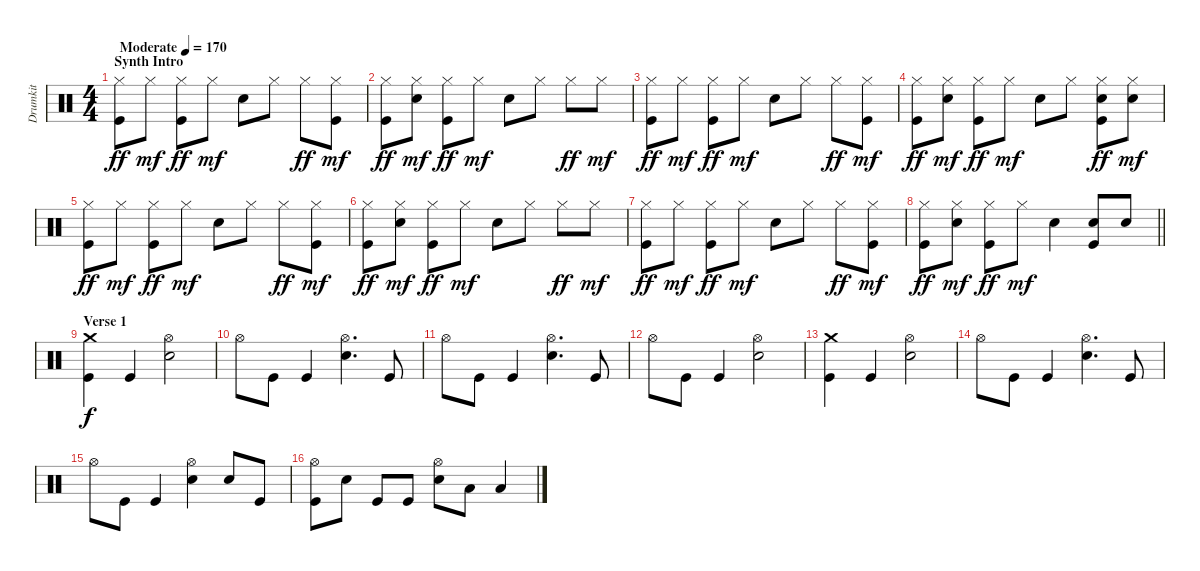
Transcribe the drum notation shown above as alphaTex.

\track ("Drumkit" "Drumkit") {instrument percussion}
\staff {score}
\articulation defaults
\ts (4 4)
\section ("" "Synth Intro")
\tempo (170 "Moderate")
\clef neutral
\ks c
("Hi-Hat (closed)" "Kick (hit)").8{dy ff} "Hi-Hat (closed)".8{dy mf} ("Hi-Hat (closed)" "Kick (hit)").8{dy ff} "Hi-Hat (closed)".8{dy mf} "Snare (hit) 2".8 "Hi-Hat (closed)".8 "Hi-Hat (closed)".8{dy ff} ("Hi-Hat (closed)" "Kick (hit)").8{dy mf} |
("Hi-Hat (closed)" "Kick (hit)").8{dy ff} ("Hi-Hat (closed)" "Snare (hit) 2").8{dy mf} ("Hi-Hat (closed)" "Kick (hit)").8{dy ff} "Hi-Hat (closed)".8{dy mf} "Snare (hit) 2".8 "Hi-Hat (closed)".8 "Hi-Hat (closed)".8{dy ff} "Hi-Hat (closed)".8{dy mf} |
("Hi-Hat (closed)" "Kick (hit)").8{dy ff} "Hi-Hat (closed)".8{dy mf} ("Hi-Hat (closed)" "Kick (hit)").8{dy ff} "Hi-Hat (closed)".8{dy mf} "Snare (hit) 2".8 "Hi-Hat (closed)".8 "Hi-Hat (closed)".8{dy ff} ("Hi-Hat (closed)" "Kick (hit)").8{dy mf} |
("Hi-Hat (closed)" "Kick (hit)").8{dy ff} ("Hi-Hat (closed)" "Snare (hit) 2").8{dy mf} ("Hi-Hat (closed)" "Kick (hit)").8{dy ff} "Hi-Hat (closed)".8{dy mf} "Snare (hit) 2".8 "Hi-Hat (closed)".8 ("Hi-Hat (closed)" "Snare (hit) 2" "Kick (hit)").8{dy ff} ("Hi-Hat (closed)" "Snare (hit) 2").8{dy mf} |
("Hi-Hat (closed)" "Kick (hit)").8{dy ff} "Hi-Hat (closed)".8{dy mf} ("Hi-Hat (closed)" "Kick (hit)").8{dy ff} "Hi-Hat (closed)".8{dy mf} "Snare (hit) 2".8 "Hi-Hat (closed)".8 "Hi-Hat (closed)".8{dy ff} ("Hi-Hat (closed)" "Kick (hit)").8{dy mf} |
("Hi-Hat (closed)" "Kick (hit)").8{dy ff} ("Hi-Hat (closed)" "Snare (hit) 2").8{dy mf} ("Hi-Hat (closed)" "Kick (hit)").8{dy ff} "Hi-Hat (closed)".8{dy mf} "Snare (hit) 2".8 "Hi-Hat (closed)".8 "Hi-Hat (closed)".8{dy ff} "Hi-Hat (closed)".8{dy mf} |
("Hi-Hat (closed)" "Kick (hit)").8{dy ff} "Hi-Hat (closed)".8{dy mf} ("Hi-Hat (closed)" "Kick (hit)").8{dy ff} "Hi-Hat (closed)".8{dy mf} "Snare (hit) 2".8 "Hi-Hat (closed)".8 "Hi-Hat (closed)".8{dy ff} ("Hi-Hat (closed)" "Kick (hit)").8{dy mf} |
\barLineRight lightlight
("Hi-Hat (closed)" "Kick (hit)").8{dy ff} ("Hi-Hat (closed)" "Snare (hit) 2").8{dy mf} ("Hi-Hat (closed)" "Kick (hit)").8{dy ff} "Hi-Hat (closed)".8{dy mf} "Snare (hit) 2".4 ("Snare (hit) 2" "Kick (hit)").8 "Snare (hit) 2".8 |
\section ("" "Verse 1")
("Crash medium (hit)" "Kick (hit)").4{dy f} "Kick (hit)".4 ("Hi-Hat (open)" "Snare (hit) 2").2 |
"Hi-Hat (open)".8 "Kick (hit)".8 "Kick (hit)".4 ("Hi-Hat (open)" "Snare (hit) 2").4{d} "Kick (hit)".8 |
"Hi-Hat (open)".8 "Kick (hit)".8 "Kick (hit)".4 ("Hi-Hat (open)" "Snare (hit) 2").4{d} "Kick (hit)".8 |
"Hi-Hat (open)".8 "Kick (hit)".8 "Kick (hit)".4 ("Hi-Hat (open)" "Snare (hit) 2").2 |
("Crash medium (hit)" "Kick (hit)").4 "Kick (hit)".4 ("Hi-Hat (open)" "Snare (hit) 2").2 |
"Hi-Hat (open)".8 "Kick (hit)".8 "Kick (hit)".4 ("Hi-Hat (open)" "Snare (hit) 2").4{d} "Kick (hit)".8 |
"Hi-Hat (open)".8 "Kick (hit)".8 "Kick (hit)".4 ("Hi-Hat (open)" "Snare (hit) 2").4 "Snare (hit) 2".8 "Kick (hit)".8 |
("Hi-Hat (open)" "Kick (hit)").8 "Snare (hit) 2".8 "Kick (hit)".8 "Kick (hit)".8 ("Hi-Hat (open)" "Snare (hit) 2").8 "Low Tom (hit)".8 "Low Floor Tom (hit)".4
